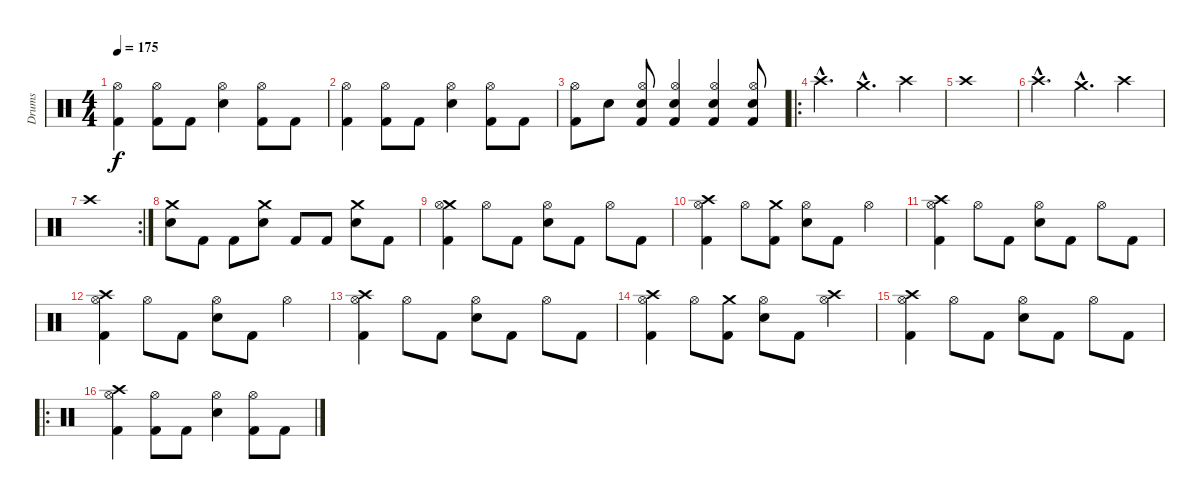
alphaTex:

\track ("Drums" "Drums") {instrument percussion}
\staff {score}
\articulation defaults
\ts (4 4)
\tempo 175
\clef neutral
\ks c
("Kick (hit) 2" "Hi-Hat (open)").4{dy f} ("Kick (hit) 2" "Hi-Hat (open)").8 "Kick (hit) 2".8 ("Hi-Hat (open)" "Snare (hit) 2").4 ("Kick (hit) 2" "Hi-Hat (open)").8 "Kick (hit) 2".8 |
("Kick (hit) 2" "Hi-Hat (open)").4 ("Kick (hit) 2" "Hi-Hat (open)").8 "Kick (hit) 2".8 ("Hi-Hat (open)" "Snare (hit) 2").4 ("Kick (hit) 2" "Hi-Hat (open)").8 "Kick (hit) 2".8 |
("Kick (hit) 2" "Hi-Hat (open)").8 "Snare (hit) 2".8 ("Kick (hit) 2" "Hi-Hat (open)" "Snare (hit) 2").8 ("Kick (hit) 2" "Hi-Hat (open)" "Snare (hit) 2").4 ("Kick (hit) 2" "Hi-Hat (open)" "Snare (hit) 2").4 ("Kick (hit) 2" "Hi-Hat (open)" "Snare (hit) 2").8 |
\ro "Crash high (hit)"{hac}.4{d} "Crash medium (hit)"{hac}.4{d} "Crash high (hit)".4
|
"Crash high (hit)".1 |
"Crash high (hit)"{hac}.4{d} "Crash medium (hit)"{hac}.4{d} "Crash high (hit)".4 |
\rc 2 "Crash high (hit)".1
|
("Crash medium (hit)" "Snare (hit) 2").8 "Kick (hit) 2".8 "Kick (hit) 2".8 ("Crash medium (hit)" "Snare (hit) 2").8 "Kick (hit) 2".8 "Kick (hit) 2".8 ("Crash medium (hit)" "Snare (hit) 2").8 "Kick (hit) 2".8 |
("Kick (hit) 2" "Crash medium (hit)" "Hi-Hat (open)").4 "Hi-Hat (open)".8 "Kick (hit) 2".8 ("Hi-Hat (open)" "Snare (hit) 2").8 "Kick (hit) 2".8 "Hi-Hat (open)".8 "Kick (hit) 2".8 |
("Kick (hit) 2" "Crash high (hit)" "Hi-Hat (open)").4 "Hi-Hat (open)".8 ("Kick (hit) 2" "Crash medium (hit)").8 ("Hi-Hat (open)" "Snare (hit) 2").8 "Kick (hit) 2".8 "Hi-Hat (open)".4 |
("Kick (hit) 2" "Crash high (hit)" "Hi-Hat (open)").4 "Hi-Hat (open)".8 "Kick (hit) 2".8 ("Hi-Hat (open)" "Snare (hit) 2").8 "Kick (hit) 2".8 "Hi-Hat (open)".8 "Kick (hit) 2".8 |
("Kick (hit) 2" "Crash high (hit)" "Hi-Hat (open)").4 "Hi-Hat (open)".8 "Kick (hit) 2".8 ("Hi-Hat (open)" "Snare (hit) 2").8 "Kick (hit) 2".8 "Hi-Hat (open)".4 |
("Kick (hit) 2" "Crash high (hit)" "Hi-Hat (open)").4 "Hi-Hat (open)".8 "Kick (hit) 2".8 ("Hi-Hat (open)" "Snare (hit) 2").8 "Kick (hit) 2".8 "Hi-Hat (open)".8 "Kick (hit) 2".8 |
("Kick (hit) 2" "Crash high (hit)" "Hi-Hat (open)").4 "Hi-Hat (open)".8 ("Kick (hit) 2" "Crash medium (hit)").8 ("Hi-Hat (open)" "Snare (hit) 2").8 "Kick (hit) 2".8 ("Crash high (hit)" "Hi-Hat (open)").4 |
("Kick (hit) 2" "Crash high (hit)" "Hi-Hat (open)").4 "Hi-Hat (open)".8 "Kick (hit) 2".8 ("Hi-Hat (open)" "Snare (hit) 2").8 "Kick (hit) 2".8 "Hi-Hat (open)".8 "Kick (hit) 2".8 |
\ro
("Kick (hit) 2" "Crash high (hit)" "Hi-Hat (open)").4 ("Kick (hit) 2" "Hi-Hat (open)").8 "Kick (hit) 2".8 ("Hi-Hat (open)" "Snare (hit) 2").4 ("Kick (hit) 2" "Hi-Hat (open)").8 "Kick (hit) 2".8
